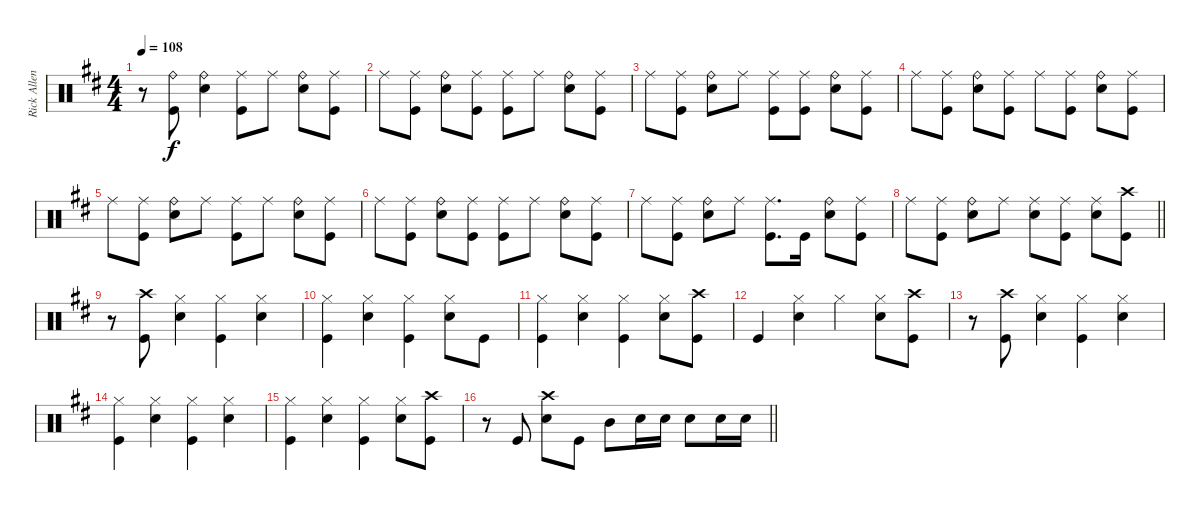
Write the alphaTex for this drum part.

\track ("Rick Allen" "Rick Allen") {instrument percussion}
\staff {score}
\articulation defaults
\ts (4 4)
\tempo 108
\clef neutral
\ks d
r.8{dy f} ("Ride (bell)" "Kick (hit)").8 ("Ride (bell)" "Snare (hit) 2").4 ("Ride (middle)" "Kick (hit)").8 "Ride (middle)".8 ("Ride (bell)" "Snare (hit) 2").8 ("Ride (middle)" "Kick (hit)").8 |
"Ride (middle)".8 ("Ride (middle)" "Kick (hit)").8 ("Ride (bell)" "Snare (hit) 2").8 ("Ride (middle)" "Kick (hit)").8 ("Ride (middle)" "Kick (hit)").8 "Ride (middle)".8 ("Ride (bell)" "Snare (hit) 2").8 ("Ride (middle)" "Kick (hit)").8 |
"Ride (middle)".8 ("Ride (middle)" "Kick (hit)").8 ("Ride (bell)" "Snare (hit) 2").8 "Ride (middle)".8 ("Ride (middle)" "Kick (hit)").8 ("Ride (middle)" "Kick (hit)").8 ("Ride (bell)" "Snare (hit) 2").8 ("Ride (middle)" "Kick (hit)").8 |
"Ride (middle)".8 ("Ride (middle)" "Kick (hit)").8 ("Ride (bell)" "Snare (hit) 2").8 ("Ride (middle)" "Kick (hit)").8 "Ride (middle)".8 ("Ride (middle)" "Kick (hit)").8 ("Ride (bell)" "Snare (hit) 2").8 ("Ride (middle)" "Kick (hit)").8 |
"Ride (middle)".8 ("Ride (middle)" "Kick (hit)").8 ("Ride (bell)" "Snare (hit) 2").8 "Ride (middle)".8 ("Ride (middle)" "Kick (hit)").8 "Ride (middle)".8 ("Ride (bell)" "Snare (hit) 2").8 ("Ride (middle)" "Kick (hit)").8 |
"Ride (middle)".8 ("Ride (middle)" "Kick (hit)").8 ("Ride (bell)" "Snare (hit) 2").8 ("Ride (middle)" "Kick (hit)").8 ("Ride (middle)" "Kick (hit)").8 "Ride (middle)".8 ("Ride (bell)" "Snare (hit) 2").8 ("Ride (middle)" "Kick (hit)").8 |
"Ride (middle)".8 ("Ride (middle)" "Kick (hit)").8 ("Ride (bell)" "Snare (hit) 2").8 "Ride (middle)".8 ("Ride (middle)" "Kick (hit)").8{d} "Kick (hit)".16 ("Ride (bell)" "Snare (hit) 2").8 ("Ride (middle)" "Kick (hit)").8 |
\barLineRight lightlight "Ride (middle)".8
("Ride (middle)" "Kick (hit)").8 ("Ride (bell)" "Snare (hit) 2").8 "Ride (middle)".8 ("Ride (middle)" "Snare (hit) 2").8 ("Ride (middle)" "Kick (hit)").8 ("Ride (middle)" "Snare (hit) 2").8 ("Crash high (hit)" "Kick (hit)").8 |
r.8 ("Crash high (hit)" "Kick (hit)").8 ("Hi-Hat (closed)" "Snare (hit) 2").4 ("Hi-Hat (closed)" "Kick (hit)").4 ("Hi-Hat (closed)" "Snare (hit) 2").4 |
("Hi-Hat (closed)" "Kick (hit)").4 ("Hi-Hat (closed)" "Snare (hit) 2").4 ("Hi-Hat (closed)" "Kick (hit)").4 ("Hi-Hat (closed)" "Snare (hit) 2").8 "Kick (hit)".8 |
("Hi-Hat (closed)" "Kick (hit)").4 ("Hi-Hat (closed)" "Snare (hit) 2").4 ("Hi-Hat (closed)" "Kick (hit)").4 ("Hi-Hat (closed)" "Snare (hit) 2").8 ("Crash high (hit)" "Kick (hit)").8 |
"Kick (hit)".4 ("Hi-Hat (closed)" "Snare (hit) 2").4 "Hi-Hat (closed)".4 ("Hi-Hat (closed)" "Snare (hit) 2").8 ("Crash high (hit)" "Kick (hit)").8 |
r.8 ("Crash high (hit)" "Kick (hit)").8 ("Hi-Hat (closed)" "Snare (hit) 2").4 ("Hi-Hat (closed)" "Kick (hit)").4 ("Hi-Hat (closed)" "Snare (hit) 2").4 |
("Hi-Hat (closed)" "Kick (hit)").4 ("Hi-Hat (closed)" "Snare (hit) 2").4 ("Hi-Hat (closed)" "Kick (hit)").4 ("Hi-Hat (closed)" "Snare (hit) 2").4 |
("Hi-Hat (closed)" "Kick (hit)").4 ("Hi-Hat (closed)" "Snare (hit) 2").4 ("Hi-Hat (closed)" "Kick (hit)").4 ("Hi-Hat (closed)" "Snare (hit) 2").8 ("Crash high (hit)" "Kick (hit)").8 |
\barLineRight lightlight
r.8 "Kick (hit)".8 ("Crash high (hit)" "Snare (hit) 2").8 "Kick (hit)".8 "Mid Tom (hit)".8 "Snare (hit) 2".16 "Snare (hit) 2".16 "Snare (hit) 2".8 "Snare (hit) 2".16 "Snare (hit) 2".16
